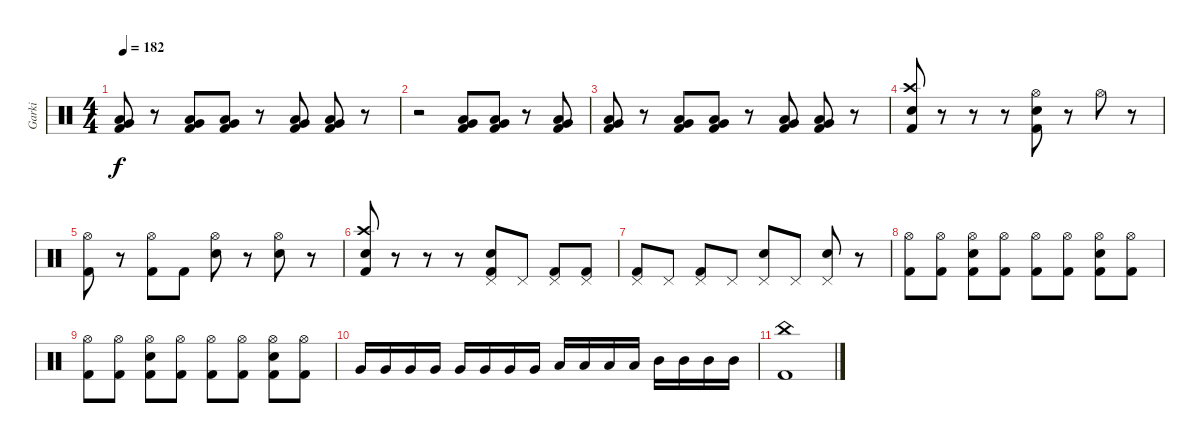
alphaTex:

\track ("Garki" "Garki") {instrument percussion}
\staff {score}
\articulation defaults
\ts (4 4)
\tempo 182
\clef neutral
\ks c
("Low Tom (hit)" "Very Low Tom (hit)" "Kick (hit) 2").8{dy f} r.8 ("Low Tom (hit)" "Very Low Tom (hit)" "Kick (hit) 2").8 ("Low Tom (hit)" "Very Low Tom (hit)" "Kick (hit) 2").8 r.8 ("Low Tom (hit)" "Very Low Tom (hit)" "Kick (hit) 2").8 ("Low Tom (hit)" "Very Low Tom (hit)" "Kick (hit) 2").8 r.8 |
r.2 ("Low Tom (hit)" "Very Low Tom (hit)" "Kick (hit) 2").8 ("Low Tom (hit)" "Very Low Tom (hit)" "Kick (hit) 2").8 r.8 ("Low Tom (hit)" "Very Low Tom (hit)" "Kick (hit) 2").8 |
("Low Tom (hit)" "Very Low Tom (hit)" "Kick (hit) 2").8 r.8 ("Low Tom (hit)" "Very Low Tom (hit)" "Kick (hit) 2").8 ("Low Tom (hit)" "Very Low Tom (hit)" "Kick (hit) 2").8 r.8 ("Low Tom (hit)" "Very Low Tom (hit)" "Kick (hit) 2").8 ("Low Tom (hit)" "Very Low Tom (hit)" "Kick (hit) 2").8 r.8 |
("Crash high (hit)" "Snare (hit) 2" "Kick (hit) 2").8 r.8 r.8 r.8 ("Hi-Hat (open)" "Snare (hit) 2" "Kick (hit) 2").8 r.8 "Hi-Hat (open)".8 r.8 |
("Hi-Hat (open)" "Kick (hit) 2").8 r.8 ("Hi-Hat (open)" "Kick (hit) 2").8 "Kick (hit) 2".8 ("Hi-Hat (open)" "Snare (hit) 2").8 r.8 ("Hi-Hat (open)" "Snare (hit) 2").8 r.8 |
("Crash high (hit)" "Snare (hit) 2" "Kick (hit) 2").8 r.8 r.8 r.8 ("Pedal Hi-Hat (hit)" "Snare (hit) 2" "Kick (hit) 2").8 "Pedal Hi-Hat (hit)".8 ("Pedal Hi-Hat (hit)" "Kick (hit) 2").8 ("Pedal Hi-Hat (hit)" "Kick (hit) 2").8 |
("Pedal Hi-Hat (hit)" "Kick (hit) 2").8 "Pedal Hi-Hat (hit)".8 ("Pedal Hi-Hat (hit)" "Kick (hit) 2").8 "Pedal Hi-Hat (hit)".8 ("Pedal Hi-Hat (hit)" "Snare (hit) 2").8 "Pedal Hi-Hat (hit)".8 ("Pedal Hi-Hat (hit)" "Snare (hit) 2").8 r.8 |
("Hi-Hat (open)" "Kick (hit) 2").8 ("Hi-Hat (open)" "Kick (hit) 2").8 ("Hi-Hat (open)" "Snare (hit) 2" "Kick (hit) 2").8 ("Hi-Hat (open)" "Kick (hit) 2").8 ("Hi-Hat (open)" "Kick (hit) 2").8 ("Hi-Hat (open)" "Kick (hit) 2").8 ("Hi-Hat (open)" "Snare (hit) 2" "Kick (hit) 2").8 ("Hi-Hat (open)" "Kick (hit) 2").8 |
("Hi-Hat (open)" "Kick (hit) 2").8 ("Hi-Hat (open)" "Kick (hit) 2").8 ("Hi-Hat (open)" "Snare (hit) 2" "Kick (hit) 2").8 ("Hi-Hat (open)" "Kick (hit) 2").8 ("Hi-Hat (open)" "Kick (hit) 2").8 ("Hi-Hat (open)" "Kick (hit) 2").8 ("Hi-Hat (open)" "Snare (hit) 2" "Kick (hit) 2").8 ("Hi-Hat (open)" "Kick (hit) 2").8 |
"Very Low Tom (hit)".16 "Very Low Tom (hit)".16 "Very Low Tom (hit)".16 "Very Low Tom (hit)".16 "Very Low Tom (hit)".16 "Very Low Tom (hit)".16 "Very Low Tom (hit)".16 "Very Low Tom (hit)".16 "Low Tom (hit)".16 "Low Tom (hit)".16 "Low Tom (hit)".16 "Low Tom (hit)".16 "Mid Tom (hit)".16 "Mid Tom (hit)".16 "Mid Tom (hit)".16 "Mid Tom (hit)".16 |
("China (hit)" "Kick (hit) 2").1
